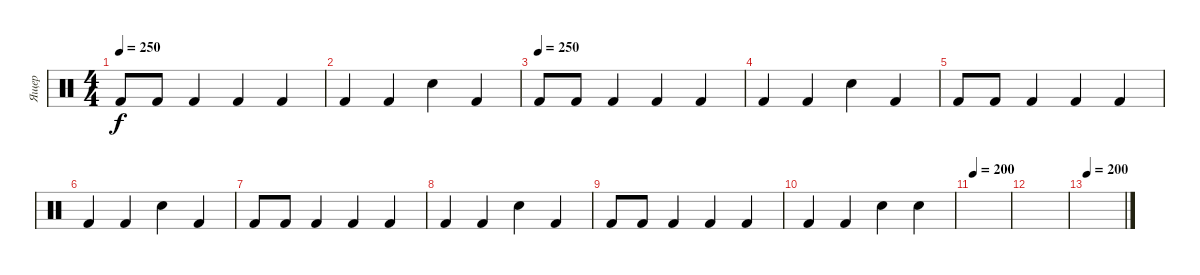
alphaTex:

\track ("Ящер" "Ящер") {instrument percussion}
\staff {score}
\articulation defaults
\ts (4 4)
\tempo 250
\clef neutral
\ks c "Kick (hit) 2".8{dy f} "Kick (hit) 2".8 "Kick (hit) 2".4 "Kick (hit) 2".4 "Kick (hit) 2".4
|
"Kick (hit) 2".4 "Kick (hit) 2".4 "Snare (hit) 2".4 "Kick (hit) 2".4 |
\tempo (250)
"Kick (hit) 2".8 "Kick (hit) 2".8 "Kick (hit) 2".4 "Kick (hit) 2".4 "Kick (hit) 2".4 |
"Kick (hit) 2".4 "Kick (hit) 2".4 "Snare (hit) 2".4 "Kick (hit) 2".4 |
"Kick (hit) 2".8 "Kick (hit) 2".8 "Kick (hit) 2".4 "Kick (hit) 2".4 "Kick (hit) 2".4 |
"Kick (hit) 2".4 "Kick (hit) 2".4 "Snare (hit) 2".4 "Kick (hit) 2".4 |
"Kick (hit) 2".8 "Kick (hit) 2".8 "Kick (hit) 2".4 "Kick (hit) 2".4 "Kick (hit) 2".4 |
"Kick (hit) 2".4 "Kick (hit) 2".4 "Snare (hit) 2".4 "Kick (hit) 2".4 |
"Kick (hit) 2".8 "Kick (hit) 2".8 "Kick (hit) 2".4 "Kick (hit) 2".4 "Kick (hit) 2".4 |
"Kick (hit) 2".4 "Kick (hit) 2".4 "Snare (hit) 2".4 "Snare (hit) 2".4 |
\tempo 200
|
|
\tempo 200
